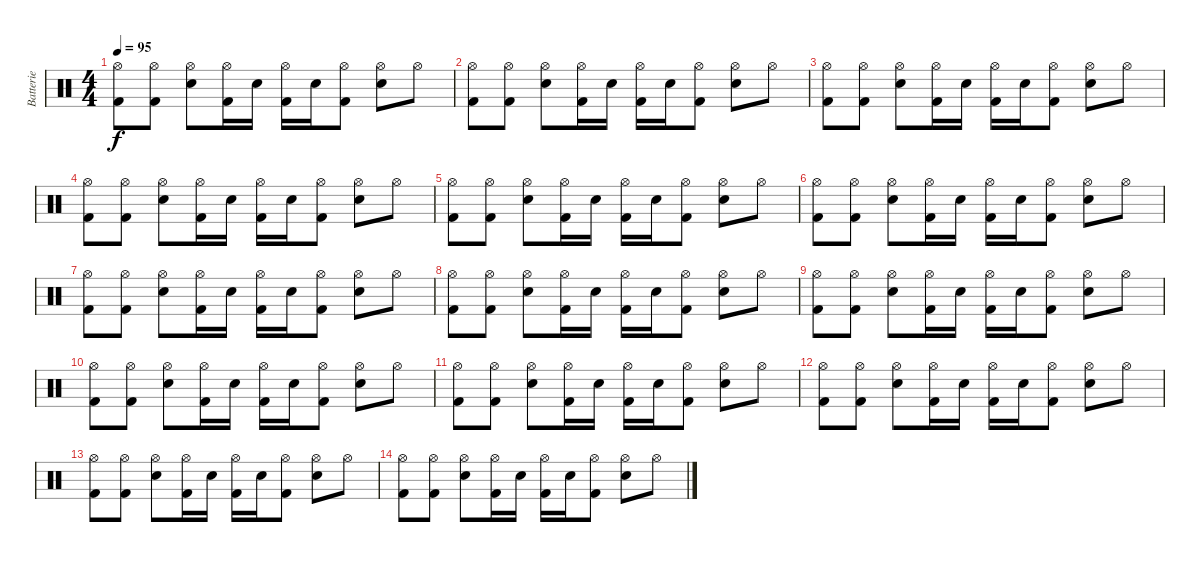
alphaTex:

\track ("Batterie" "Batterie") {instrument percussion}
\staff {score}
\articulation defaults
\ts (4 4)
\tempo 95
\clef neutral
\ks c
("Kick (hit) 2" "Hi-Hat (open)").8{dy f} ("Kick (hit) 2" "Hi-Hat (open)").8 ("Electric Snare (hit)" "Hi-Hat (open)").8 ("Kick (hit) 2" "Hi-Hat (open)").16 "Electric Snare (hit)".16 ("Kick (hit) 2" "Hi-Hat (open)").16 "Electric Snare (hit)".16 ("Kick (hit) 2" "Hi-Hat (open)").8 ("Electric Snare (hit)" "Hi-Hat (open)").8 "Hi-Hat (open)".8 |
("Kick (hit) 2" "Hi-Hat (open)").8 ("Kick (hit) 2" "Hi-Hat (open)").8 ("Electric Snare (hit)" "Hi-Hat (open)").8 ("Kick (hit) 2" "Hi-Hat (open)").16 "Electric Snare (hit)".16 ("Kick (hit) 2" "Hi-Hat (open)").16 "Electric Snare (hit)".16 ("Kick (hit) 2" "Hi-Hat (open)").8 ("Electric Snare (hit)" "Hi-Hat (open)").8 "Hi-Hat (open)".8 |
("Kick (hit) 2" "Hi-Hat (open)").8 ("Kick (hit) 2" "Hi-Hat (open)").8 ("Electric Snare (hit)" "Hi-Hat (open)").8 ("Kick (hit) 2" "Hi-Hat (open)").16 "Electric Snare (hit)".16 ("Kick (hit) 2" "Hi-Hat (open)").16 "Electric Snare (hit)".16 ("Kick (hit) 2" "Hi-Hat (open)").8 ("Electric Snare (hit)" "Hi-Hat (open)").8 "Hi-Hat (open)".8 |
("Kick (hit) 2" "Hi-Hat (open)").8 ("Kick (hit) 2" "Hi-Hat (open)").8 ("Electric Snare (hit)" "Hi-Hat (open)").8 ("Kick (hit) 2" "Hi-Hat (open)").16 "Electric Snare (hit)".16 ("Kick (hit) 2" "Hi-Hat (open)").16 "Electric Snare (hit)".16 ("Kick (hit) 2" "Hi-Hat (open)").8 ("Electric Snare (hit)" "Hi-Hat (open)").8 "Hi-Hat (open)".8 |
("Kick (hit) 2" "Hi-Hat (open)").8 ("Kick (hit) 2" "Hi-Hat (open)").8 ("Electric Snare (hit)" "Hi-Hat (open)").8 ("Kick (hit) 2" "Hi-Hat (open)").16 "Electric Snare (hit)".16 ("Kick (hit) 2" "Hi-Hat (open)").16 "Electric Snare (hit)".16 ("Kick (hit) 2" "Hi-Hat (open)").8 ("Electric Snare (hit)" "Hi-Hat (open)").8 "Hi-Hat (open)".8 |
("Kick (hit) 2" "Hi-Hat (open)").8 ("Kick (hit) 2" "Hi-Hat (open)").8 ("Electric Snare (hit)" "Hi-Hat (open)").8 ("Kick (hit) 2" "Hi-Hat (open)").16 "Electric Snare (hit)".16 ("Kick (hit) 2" "Hi-Hat (open)").16 "Electric Snare (hit)".16 ("Kick (hit) 2" "Hi-Hat (open)").8 ("Electric Snare (hit)" "Hi-Hat (open)").8 "Hi-Hat (open)".8 |
("Kick (hit) 2" "Hi-Hat (open)").8 ("Kick (hit) 2" "Hi-Hat (open)").8 ("Electric Snare (hit)" "Hi-Hat (open)").8 ("Kick (hit) 2" "Hi-Hat (open)").16 "Electric Snare (hit)".16 ("Kick (hit) 2" "Hi-Hat (open)").16 "Electric Snare (hit)".16 ("Kick (hit) 2" "Hi-Hat (open)").8 ("Electric Snare (hit)" "Hi-Hat (open)").8 "Hi-Hat (open)".8 |
("Kick (hit) 2" "Hi-Hat (open)").8 ("Kick (hit) 2" "Hi-Hat (open)").8 ("Electric Snare (hit)" "Hi-Hat (open)").8 ("Kick (hit) 2" "Hi-Hat (open)").16 "Electric Snare (hit)".16 ("Kick (hit) 2" "Hi-Hat (open)").16 "Electric Snare (hit)".16 ("Kick (hit) 2" "Hi-Hat (open)").8 ("Electric Snare (hit)" "Hi-Hat (open)").8 "Hi-Hat (open)".8 |
("Kick (hit) 2" "Hi-Hat (open)").8 ("Kick (hit) 2" "Hi-Hat (open)").8 ("Electric Snare (hit)" "Hi-Hat (open)").8 ("Kick (hit) 2" "Hi-Hat (open)").16 "Electric Snare (hit)".16 ("Kick (hit) 2" "Hi-Hat (open)").16 "Electric Snare (hit)".16 ("Kick (hit) 2" "Hi-Hat (open)").8 ("Electric Snare (hit)" "Hi-Hat (open)").8 "Hi-Hat (open)".8 |
("Kick (hit) 2" "Hi-Hat (open)").8 ("Kick (hit) 2" "Hi-Hat (open)").8 ("Electric Snare (hit)" "Hi-Hat (open)").8 ("Kick (hit) 2" "Hi-Hat (open)").16 "Electric Snare (hit)".16 ("Kick (hit) 2" "Hi-Hat (open)").16 "Electric Snare (hit)".16 ("Kick (hit) 2" "Hi-Hat (open)").8 ("Electric Snare (hit)" "Hi-Hat (open)").8 "Hi-Hat (open)".8 |
("Kick (hit) 2" "Hi-Hat (open)").8 ("Kick (hit) 2" "Hi-Hat (open)").8 ("Electric Snare (hit)" "Hi-Hat (open)").8 ("Kick (hit) 2" "Hi-Hat (open)").16 "Electric Snare (hit)".16 ("Kick (hit) 2" "Hi-Hat (open)").16 "Electric Snare (hit)".16 ("Kick (hit) 2" "Hi-Hat (open)").8 ("Electric Snare (hit)" "Hi-Hat (open)").8 "Hi-Hat (open)".8 |
("Kick (hit) 2" "Hi-Hat (open)").8 ("Kick (hit) 2" "Hi-Hat (open)").8 ("Electric Snare (hit)" "Hi-Hat (open)").8 ("Kick (hit) 2" "Hi-Hat (open)").16 "Electric Snare (hit)".16 ("Kick (hit) 2" "Hi-Hat (open)").16 "Electric Snare (hit)".16 ("Kick (hit) 2" "Hi-Hat (open)").8 ("Electric Snare (hit)" "Hi-Hat (open)").8 "Hi-Hat (open)".8 |
("Kick (hit) 2" "Hi-Hat (open)").8 ("Kick (hit) 2" "Hi-Hat (open)").8 ("Electric Snare (hit)" "Hi-Hat (open)").8 ("Kick (hit) 2" "Hi-Hat (open)").16 "Electric Snare (hit)".16 ("Kick (hit) 2" "Hi-Hat (open)").16 "Electric Snare (hit)".16 ("Kick (hit) 2" "Hi-Hat (open)").8 ("Electric Snare (hit)" "Hi-Hat (open)").8 "Hi-Hat (open)".8 |
("Kick (hit) 2" "Hi-Hat (open)").8 ("Kick (hit) 2" "Hi-Hat (open)").8 ("Electric Snare (hit)" "Hi-Hat (open)").8 ("Kick (hit) 2" "Hi-Hat (open)").16 "Electric Snare (hit)".16 ("Kick (hit) 2" "Hi-Hat (open)").16 "Electric Snare (hit)".16 ("Kick (hit) 2" "Hi-Hat (open)").8 ("Electric Snare (hit)" "Hi-Hat (open)").8 "Hi-Hat (open)".8
